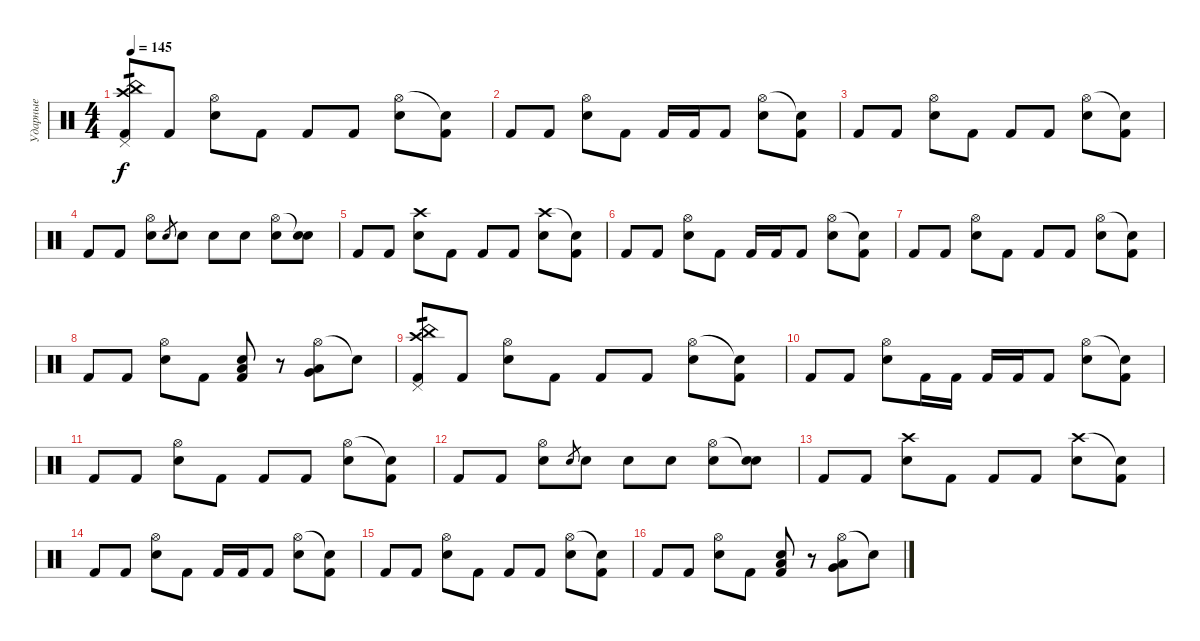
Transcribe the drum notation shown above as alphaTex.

\track ("Ударные" "Ударные") {instrument percussion}
\staff {score}
\articulation defaults
\ts (4 4)
\tempo 145
\clef neutral
\ks c
("Pedal Hi-Hat (hit)" "China (hit)" "Crash high (hit)" "Kick (hit) 2").8{tp 1 dy f} "Kick (hit) 2".8 ("Hi-Hat (open)" "Snare (hit) 2").8 "Kick (hit) 2".8 "Kick (hit) 2".8 "Kick (hit) 2".8 ("Hi-Hat (open)" "Snare (hit) 2").8 ("Snare (hit)"{t} "Kick (hit) 2").8 |
"Kick (hit) 2".8 "Kick (hit) 2".8 ("Hi-Hat (open)" "Snare (hit) 2").8 "Kick (hit) 2".8 "Kick (hit) 2".16 "Kick (hit) 2".16 "Kick (hit) 2".8 ("Hi-Hat (open)" "Snare (hit) 2").8 ("Snare (hit)"{t} "Kick (hit) 2").8 |
"Kick (hit) 2".8 "Kick (hit) 2".8 ("Hi-Hat (open)" "Electric Snare (hit)").8 "Kick (hit) 2".8 "Kick (hit) 2".8 "Kick (hit) 2".8 ("Hi-Hat (open)" "Electric Snare (hit)").8 ("Snare (hit)"{t} "Kick (hit) 2").8 |
"Kick (hit) 2".8 "Kick (hit) 2".8 ("Hi-Hat (open)" "Snare (hit) 2").8 "Snare (hit) 2".8{gr} "Snare (hit) 2".8 "Snare (hit) 2".8 "Snare (hit) 2".8 ("Hi-Hat (open)" "Electric Snare (hit)").8 ("Snare (hit)"{t} "Electric Snare (hit)").8 |
"Kick (hit) 2".8 "Kick (hit) 2".8 ("Crash high (hit)" "Snare (hit) 2").8 "Kick (hit) 2".8 "Kick (hit) 2".8 "Kick (hit) 2".8 ("Crash high (hit)" "Snare (hit) 2").8 ("Snare (hit)"{t} "Kick (hit) 2").8 |
"Kick (hit) 2".8 "Kick (hit) 2".8 ("Hi-Hat (open)" "Snare (hit) 2").8 "Kick (hit) 2".8 "Kick (hit) 2".16 "Kick (hit) 2".16 "Kick (hit) 2".8 ("Hi-Hat (open)" "Snare (hit) 2").8 ("Snare (hit)"{t} "Kick (hit) 2").8 |
"Kick (hit) 2".8 "Kick (hit) 2".8 ("Hi-Hat (open)" "Electric Snare (hit)").8 "Kick (hit) 2".8 "Kick (hit) 2".8 "Kick (hit) 2".8 ("Hi-Hat (open)" "Electric Snare (hit)").8 ("Snare (hit)"{t} "Kick (hit) 2").8 |
"Kick (hit) 2".8 "Kick (hit) 2".8 ("Hi-Hat (open)" "Snare (hit) 2").8 "Kick (hit) 2".8 ("Low Floor Tom (hit)" "Electric Snare (hit)" "Kick (hit) 2").8 r.8 ("Hi-Hat (open)" "Low Floor Tom (hit)" "Very Low Tom (hit)").8 "Snare (hit)"{t}.8 |
("Pedal Hi-Hat (hit)" "China (hit)" "Crash high (hit)" "Kick (hit) 2").8{tp 1} "Kick (hit) 2".8 ("Hi-Hat (open)" "Snare (hit) 2").8 "Kick (hit) 2".8 "Kick (hit) 2".8 "Kick (hit) 2".8 ("Hi-Hat (open)" "Snare (hit) 2").8 ("Snare (hit)"{t} "Kick (hit) 2").8 |
"Kick (hit) 2".8 "Kick (hit) 2".8 ("Hi-Hat (open)" "Snare (hit) 2").8 "Kick (hit) 2".16 "Kick (hit) 2".16 "Kick (hit) 2".16 "Kick (hit) 2".16 "Kick (hit) 2".8 ("Hi-Hat (open)" "Snare (hit) 2").8 ("Snare (hit)"{t} "Kick (hit) 2").8 |
"Kick (hit) 2".8 "Kick (hit) 2".8 ("Hi-Hat (open)" "Electric Snare (hit)").8 "Kick (hit) 2".8 "Kick (hit) 2".8 "Kick (hit) 2".8 ("Hi-Hat (open)" "Electric Snare (hit)").8 ("Snare (hit)"{t} "Kick (hit) 2").8 |
"Kick (hit) 2".8 "Kick (hit) 2".8 ("Hi-Hat (open)" "Snare (hit) 2").8 "Snare (hit) 2".8{gr} "Snare (hit) 2".8 "Snare (hit) 2".8 "Snare (hit) 2".8 ("Hi-Hat (open)" "Electric Snare (hit)").8 ("Snare (hit)"{t} "Electric Snare (hit)").8 |
"Kick (hit) 2".8 "Kick (hit) 2".8 ("Crash high (hit)" "Snare (hit) 2").8 "Kick (hit) 2".8 "Kick (hit) 2".8 "Kick (hit) 2".8 ("Crash high (hit)" "Snare (hit) 2").8 ("Snare (hit)"{t} "Kick (hit) 2").8 |
"Kick (hit) 2".8 "Kick (hit) 2".8 ("Hi-Hat (open)" "Snare (hit) 2").8 "Kick (hit) 2".8 "Kick (hit) 2".16 "Kick (hit) 2".16 "Kick (hit) 2".8 ("Hi-Hat (open)" "Snare (hit) 2").8 ("Snare (hit)"{t} "Kick (hit) 2").8 |
"Kick (hit) 2".8 "Kick (hit) 2".8 ("Hi-Hat (open)" "Electric Snare (hit)").8 "Kick (hit) 2".8 "Kick (hit) 2".8 "Kick (hit) 2".8 ("Hi-Hat (open)" "Electric Snare (hit)").8 ("Snare (hit)"{t} "Kick (hit) 2").8 |
"Kick (hit) 2".8 "Kick (hit) 2".8 ("Hi-Hat (open)" "Snare (hit) 2").8 "Kick (hit) 2".8 ("Low Floor Tom (hit)" "Electric Snare (hit)" "Kick (hit) 2").8 r.8 ("Hi-Hat (open)" "Low Floor Tom (hit)" "Very Low Tom (hit)").8 "Snare (hit)"{t}.8
